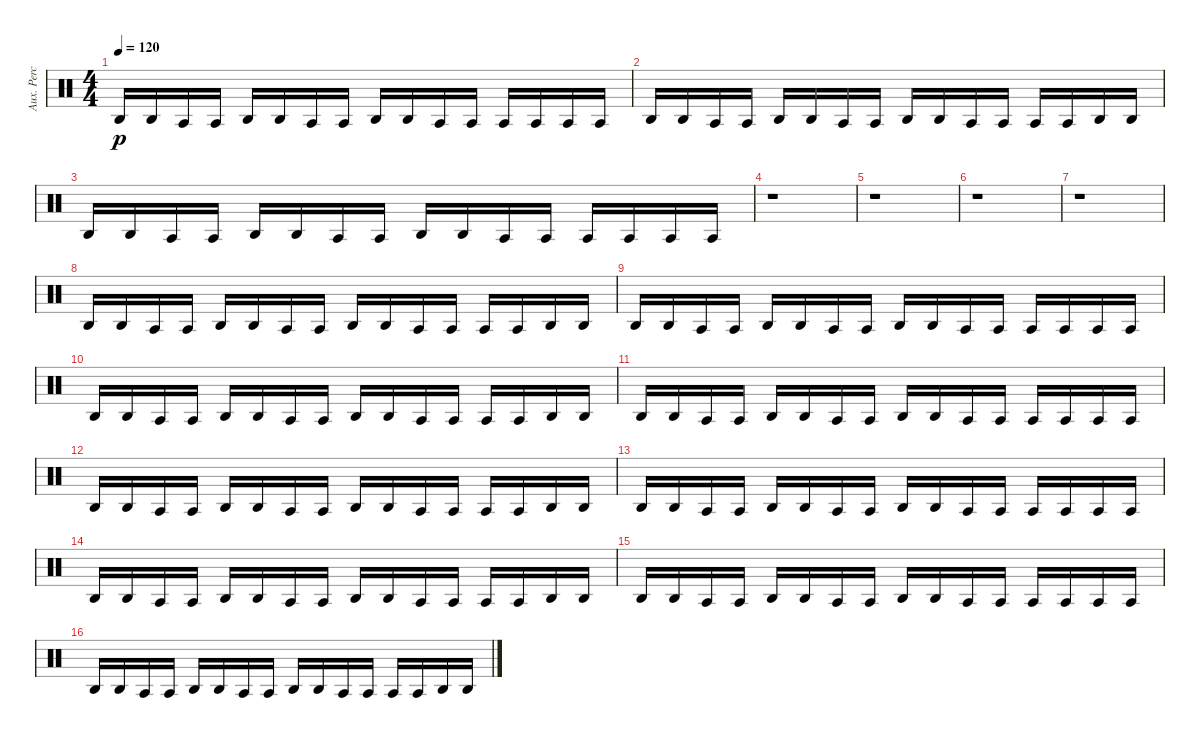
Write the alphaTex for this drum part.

\track ("Aux. Perc" "Aux. Perc") {instrument percussion}
\staff {score}
\articulation defaults
\ts (4 4)
\tempo 120
\clef neutral
\ks c "Agogo high (hit)".16{dy p} "Agogo high (hit)".16 "Agogo tow (hit)".16 "Agogo tow (hit)".16 "Agogo high (hit)".16 "Agogo high (hit)".16 "Agogo tow (hit)".16 "Agogo tow (hit)".16 "Agogo high (hit)".16 "Agogo high (hit)".16 "Agogo tow (hit)".16 "Agogo tow (hit)".16 "Agogo tow (hit)".16 "Agogo tow (hit)".16 "Agogo tow (hit)".16 "Agogo tow (hit)".16
|
"Agogo high (hit)".16 "Agogo high (hit)".16 "Agogo tow (hit)".16 "Agogo tow (hit)".16 "Agogo high (hit)".16 "Agogo high (hit)".16 "Agogo tow (hit)".16 "Agogo tow (hit)".16 "Agogo high (hit)".16 "Agogo high (hit)".16 "Agogo tow (hit)".16 "Agogo tow (hit)".16 "Agogo tow (hit)".16 "Agogo tow (hit)".16 "Agogo high (hit)".16 "Agogo high (hit)".16 |
"Agogo high (hit)".16 "Agogo high (hit)".16 "Agogo tow (hit)".16 "Agogo tow (hit)".16 "Agogo high (hit)".16 "Agogo high (hit)".16 "Agogo tow (hit)".16 "Agogo tow (hit)".16 "Agogo high (hit)".16 "Agogo high (hit)".16 "Agogo tow (hit)".16 "Agogo tow (hit)".16 "Agogo tow (hit)".16 "Agogo tow (hit)".16 "Agogo tow (hit)".16 "Agogo tow (hit)".16 |
r.1 |
r.1 |
r.1 |
r.1 |
"Agogo high (hit)".16 "Agogo high (hit)".16 "Agogo tow (hit)".16 "Agogo tow (hit)".16 "Agogo high (hit)".16 "Agogo high (hit)".16 "Agogo tow (hit)".16 "Agogo tow (hit)".16 "Agogo high (hit)".16 "Agogo high (hit)".16 "Agogo tow (hit)".16 "Agogo tow (hit)".16 "Agogo tow (hit)".16 "Agogo tow (hit)".16 "Agogo high (hit)".16 "Agogo high (hit)".16 |
"Agogo high (hit)".16 "Agogo high (hit)".16 "Agogo tow (hit)".16 "Agogo tow (hit)".16 "Agogo high (hit)".16 "Agogo high (hit)".16 "Agogo tow (hit)".16 "Agogo tow (hit)".16 "Agogo high (hit)".16 "Agogo high (hit)".16 "Agogo tow (hit)".16 "Agogo tow (hit)".16 "Agogo tow (hit)".16 "Agogo tow (hit)".16 "Agogo tow (hit)".16 "Agogo tow (hit)".16 |
"Agogo high (hit)".16 "Agogo high (hit)".16 "Agogo tow (hit)".16 "Agogo tow (hit)".16 "Agogo high (hit)".16 "Agogo high (hit)".16 "Agogo tow (hit)".16 "Agogo tow (hit)".16 "Agogo high (hit)".16 "Agogo high (hit)".16 "Agogo tow (hit)".16 "Agogo tow (hit)".16 "Agogo tow (hit)".16 "Agogo tow (hit)".16 "Agogo high (hit)".16 "Agogo high (hit)".16 |
"Agogo high (hit)".16 "Agogo high (hit)".16 "Agogo tow (hit)".16 "Agogo tow (hit)".16 "Agogo high (hit)".16 "Agogo high (hit)".16 "Agogo tow (hit)".16 "Agogo tow (hit)".16 "Agogo high (hit)".16 "Agogo high (hit)".16 "Agogo tow (hit)".16 "Agogo tow (hit)".16 "Agogo tow (hit)".16 "Agogo tow (hit)".16 "Agogo tow (hit)".16 "Agogo tow (hit)".16 |
"Agogo high (hit)".16 "Agogo high (hit)".16 "Agogo tow (hit)".16 "Agogo tow (hit)".16 "Agogo high (hit)".16 "Agogo high (hit)".16 "Agogo tow (hit)".16 "Agogo tow (hit)".16 "Agogo high (hit)".16 "Agogo high (hit)".16 "Agogo tow (hit)".16 "Agogo tow (hit)".16 "Agogo tow (hit)".16 "Agogo tow (hit)".16 "Agogo high (hit)".16 "Agogo high (hit)".16 |
"Agogo high (hit)".16 "Agogo high (hit)".16 "Agogo tow (hit)".16 "Agogo tow (hit)".16 "Agogo high (hit)".16 "Agogo high (hit)".16 "Agogo tow (hit)".16 "Agogo tow (hit)".16 "Agogo high (hit)".16 "Agogo high (hit)".16 "Agogo tow (hit)".16 "Agogo tow (hit)".16 "Agogo tow (hit)".16 "Agogo tow (hit)".16 "Agogo tow (hit)".16 "Agogo tow (hit)".16 |
"Agogo high (hit)".16 "Agogo high (hit)".16 "Agogo tow (hit)".16 "Agogo tow (hit)".16 "Agogo high (hit)".16 "Agogo high (hit)".16 "Agogo tow (hit)".16 "Agogo tow (hit)".16 "Agogo high (hit)".16 "Agogo high (hit)".16 "Agogo tow (hit)".16 "Agogo tow (hit)".16 "Agogo tow (hit)".16 "Agogo tow (hit)".16 "Agogo high (hit)".16 "Agogo high (hit)".16 |
"Agogo high (hit)".16 "Agogo high (hit)".16 "Agogo tow (hit)".16 "Agogo tow (hit)".16 "Agogo high (hit)".16 "Agogo high (hit)".16 "Agogo tow (hit)".16 "Agogo tow (hit)".16 "Agogo high (hit)".16 "Agogo high (hit)".16 "Agogo tow (hit)".16 "Agogo tow (hit)".16 "Agogo tow (hit)".16 "Agogo tow (hit)".16 "Agogo tow (hit)".16 "Agogo tow (hit)".16 |
"Agogo high (hit)".16 "Agogo high (hit)".16 "Agogo tow (hit)".16 "Agogo tow (hit)".16 "Agogo high (hit)".16 "Agogo high (hit)".16 "Agogo tow (hit)".16 "Agogo tow (hit)".16 "Agogo high (hit)".16 "Agogo high (hit)".16 "Agogo tow (hit)".16 "Agogo tow (hit)".16 "Agogo tow (hit)".16 "Agogo tow (hit)".16 "Agogo high (hit)".16 "Agogo high (hit)".16
